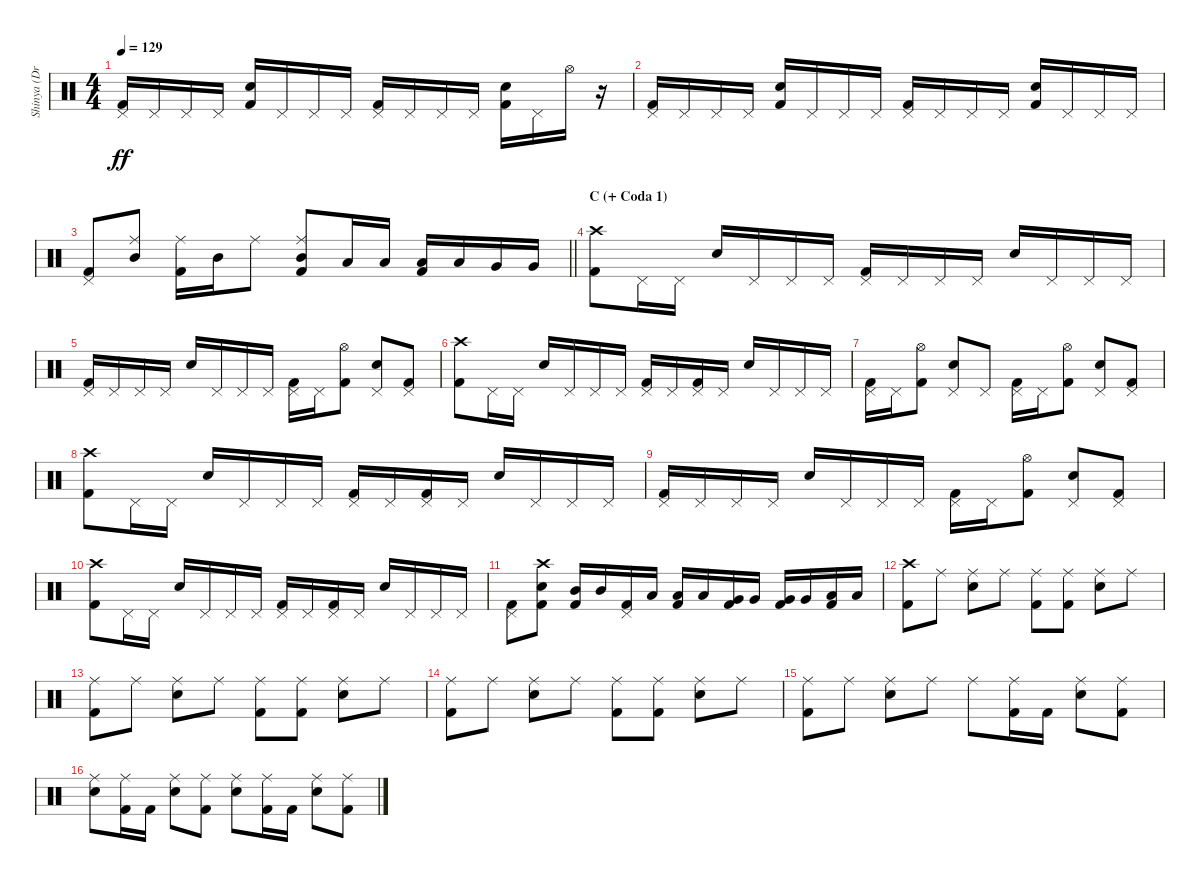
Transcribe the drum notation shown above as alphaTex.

\track ("Shinya (Drums)" "Shinya (Dr") {instrument percussion}
\staff {score}
\articulation defaults
\ts (4 4)
\tempo 129
\clef neutral
\ks c
("Kick (hit) 2" "Pedal Hi-Hat (hit)").16{dy ff} "Pedal Hi-Hat (hit)".16 "Pedal Hi-Hat (hit)".16 "Pedal Hi-Hat (hit)".16 ("Kick (hit) 2" "Electric Snare (hit)").16 "Pedal Hi-Hat (hit)".16 "Pedal Hi-Hat (hit)".16 "Pedal Hi-Hat (hit)".16 ("Kick (hit) 2" "Pedal Hi-Hat (hit)").16 "Pedal Hi-Hat (hit)".16 "Pedal Hi-Hat (hit)".16 "Pedal Hi-Hat (hit)".16 ("Kick (hit) 2" "Electric Snare (hit)").16 "Pedal Hi-Hat (hit)".16 "Hi-Hat (open)".16 r.16 |
("Kick (hit) 2" "Pedal Hi-Hat (hit)").16 "Pedal Hi-Hat (hit)".16 "Pedal Hi-Hat (hit)".16 "Pedal Hi-Hat (hit)".16 ("Kick (hit) 2" "Electric Snare (hit)").16 "Pedal Hi-Hat (hit)".16 "Pedal Hi-Hat (hit)".16 "Pedal Hi-Hat (hit)".16 ("Kick (hit) 2" "Pedal Hi-Hat (hit)").16 "Pedal Hi-Hat (hit)".16 "Pedal Hi-Hat (hit)".16 "Pedal Hi-Hat (hit)".16 ("Kick (hit) 2" "Electric Snare (hit)").16 "Pedal Hi-Hat (hit)".16 "Pedal Hi-Hat (hit)".16 "Pedal Hi-Hat (hit)".16 |
\barLineRight lightlight
("Pedal Hi-Hat (hit)" "Kick (hit) 2").8 ("Ride (middle)" "Mid Tom (hit)").8 ("Ride (middle)" "Kick (hit) 2").16 "Mid Tom (hit)".16 "Ride (middle)".8 ("Ride (middle)" "Mid Tom (hit)" "Kick (hit) 2").8 "Low Tom (hit)".16 "Low Tom (hit)".16 ("Low Tom (hit)" "Kick (hit) 2").16 "Low Tom (hit)".16 "Very Low Tom (hit)".16 "Very Low Tom (hit)".16 |
\section ("" "C (+ Coda 1)")
("Kick (hit) 2" "Crash high (hit)").8 "Pedal Hi-Hat (hit)".16 "Pedal Hi-Hat (hit)".16 "Electric Snare (hit)".16 "Pedal Hi-Hat (hit)".16 "Pedal Hi-Hat (hit)".16 "Pedal Hi-Hat (hit)".16 ("Kick (hit) 2" "Pedal Hi-Hat (hit)").16 "Pedal Hi-Hat (hit)".16 "Pedal Hi-Hat (hit)".16 "Pedal Hi-Hat (hit)".16 "Electric Snare (hit)".16 "Pedal Hi-Hat (hit)".16 "Pedal Hi-Hat (hit)".16 "Pedal Hi-Hat (hit)".16 |
("Kick (hit) 2" "Pedal Hi-Hat (hit)").16 "Pedal Hi-Hat (hit)".16 "Pedal Hi-Hat (hit)".16 "Pedal Hi-Hat (hit)".16 "Electric Snare (hit)".16 "Pedal Hi-Hat (hit)".16 "Pedal Hi-Hat (hit)".16 "Pedal Hi-Hat (hit)".16 ("Kick (hit) 2" "Pedal Hi-Hat (hit)").16 "Pedal Hi-Hat (hit)".16 ("Kick (hit) 2" "Hi-Hat (open)").8 ("Electric Snare (hit)" "Pedal Hi-Hat (hit)").8 ("Kick (hit) 2" "Pedal Hi-Hat (hit)").8 |
("Kick (hit) 2" "Crash high (hit)").8 "Pedal Hi-Hat (hit)".16 "Pedal Hi-Hat (hit)".16 "Electric Snare (hit)".16 "Pedal Hi-Hat (hit)".16 "Pedal Hi-Hat (hit)".16 "Pedal Hi-Hat (hit)".16 ("Kick (hit) 2" "Pedal Hi-Hat (hit)").16 "Pedal Hi-Hat (hit)".16 ("Kick (hit) 2" "Pedal Hi-Hat (hit)").16 "Pedal Hi-Hat (hit)".16 "Electric Snare (hit)".16 "Pedal Hi-Hat (hit)".16 "Pedal Hi-Hat (hit)".16 "Pedal Hi-Hat (hit)".16 |
("Kick (hit) 2" "Pedal Hi-Hat (hit)").16 "Pedal Hi-Hat (hit)".16 ("Kick (hit) 2" "Hi-Hat (open)").8 ("Pedal Hi-Hat (hit)" "Electric Snare (hit)").8 "Pedal Hi-Hat (hit)".8 ("Kick (hit) 2" "Pedal Hi-Hat (hit)").16 "Pedal Hi-Hat (hit)".16 ("Kick (hit) 2" "Hi-Hat (open)").8 ("Pedal Hi-Hat (hit)" "Electric Snare (hit)").8 ("Kick (hit) 2" "Pedal Hi-Hat (hit)").8 |
("Crash high (hit)" "Kick (hit) 2").8 "Pedal Hi-Hat (hit)".16 "Pedal Hi-Hat (hit)".16 "Electric Snare (hit)".16 "Pedal Hi-Hat (hit)".16 "Pedal Hi-Hat (hit)".16 "Pedal Hi-Hat (hit)".16 ("Pedal Hi-Hat (hit)" "Kick (hit) 2").16 "Pedal Hi-Hat (hit)".16 ("Pedal Hi-Hat (hit)" "Kick (hit) 2").16 "Pedal Hi-Hat (hit)".16 "Electric Snare (hit)".16 "Pedal Hi-Hat (hit)".16 "Pedal Hi-Hat (hit)".16 "Pedal Hi-Hat (hit)".16 |
("Kick (hit) 2" "Pedal Hi-Hat (hit)").16 "Pedal Hi-Hat (hit)".16 "Pedal Hi-Hat (hit)".16 "Pedal Hi-Hat (hit)".16 "Electric Snare (hit)".16 "Pedal Hi-Hat (hit)".16 "Pedal Hi-Hat (hit)".16 "Pedal Hi-Hat (hit)".16 ("Pedal Hi-Hat (hit)" "Kick (hit) 2").16 "Pedal Hi-Hat (hit)".16 ("Kick (hit) 2" "Hi-Hat (open)").8 ("Electric Snare (hit)" "Pedal Hi-Hat (hit)").8 ("Pedal Hi-Hat (hit)" "Kick (hit) 2").8 |
("Crash high (hit)" "Kick (hit) 2").8 "Pedal Hi-Hat (hit)".16 "Pedal Hi-Hat (hit)".16 "Electric Snare (hit)".16 "Pedal Hi-Hat (hit)".16 "Pedal Hi-Hat (hit)".16 "Pedal Hi-Hat (hit)".16 ("Pedal Hi-Hat (hit)" "Kick (hit) 2").16 "Pedal Hi-Hat (hit)".16 ("Pedal Hi-Hat (hit)" "Kick (hit) 2").16 "Pedal Hi-Hat (hit)".16 "Electric Snare (hit)".16 "Pedal Hi-Hat (hit)".16 "Pedal Hi-Hat (hit)".16 "Pedal Hi-Hat (hit)".16 |
("Kick (hit) 2" "Pedal Hi-Hat (hit)").8 ("Kick (hit) 2" "Crash high (hit)" "Electric Snare (hit)").8 ("Kick (hit) 2" "Mid Tom (hit)").16 "Mid Tom (hit)".16 ("Kick (hit) 2" "Pedal Hi-Hat (hit)").16 "Low Tom (hit)".16 ("Kick (hit) 2" "Low Tom (hit)").16 "Low Tom (hit)".16 ("Kick (hit) 2" "Very Low Tom (hit)").16 "Very Low Tom (hit)".16 ("Kick (hit) 2" "Very Low Tom (hit)").16 "Very Low Tom (hit)".16 ("Kick (hit) 2" "Low Floor Tom (hit)").16 "Low Floor Tom (hit)".16 |
("Kick (hit) 2" "Crash high (hit)").8 "Ride (middle)".8 ("Electric Snare (hit)" "Ride (middle)").8 "Ride (middle)".8 ("Kick (hit) 2" "Ride (middle)").8 ("Kick (hit) 2" "Ride (middle)").8 ("Electric Snare (hit)" "Ride (middle)").8 "Ride (middle)".8 |
("Kick (hit) 2" "Ride (middle)").8 "Ride (middle)".8 ("Electric Snare (hit)" "Ride (middle)").8 "Ride (middle)".8 ("Kick (hit) 2" "Ride (middle)").8 ("Kick (hit) 2" "Ride (middle)").8 ("Electric Snare (hit)" "Ride (middle)").8 "Ride (middle)".8 |
("Kick (hit) 2" "Ride (middle)").8 "Ride (middle)".8 ("Electric Snare (hit)" "Ride (middle)").8 "Ride (middle)".8 ("Kick (hit) 2" "Ride (middle)").8 ("Kick (hit) 2" "Ride (middle)").8 ("Electric Snare (hit)" "Ride (middle)").8 "Ride (middle)".8 |
("Kick (hit) 2" "Ride (middle)").8 "Ride (middle)".8 ("Electric Snare (hit)" "Ride (middle)").8 "Ride (middle)".8 "Ride (middle)".8 ("Ride (middle)" "Kick (hit) 2").16 "Kick (hit) 2".16 ("Electric Snare (hit)" "Ride (middle)").8 ("Ride (middle)" "Kick (hit) 2").8 |
("Electric Snare (hit)" "Ride (middle)").8 ("Ride (middle)" "Kick (hit) 2").16 "Kick (hit) 2".16 ("Electric Snare (hit)" "Ride (middle)").8 ("Ride (middle)" "Kick (hit) 2").8 ("Electric Snare (hit)" "Ride (middle)").8 ("Ride (middle)" "Kick (hit) 2").16 "Kick (hit) 2".16 ("Electric Snare (hit)" "Ride (middle)").8 ("Ride (middle)" "Kick (hit) 2").8
